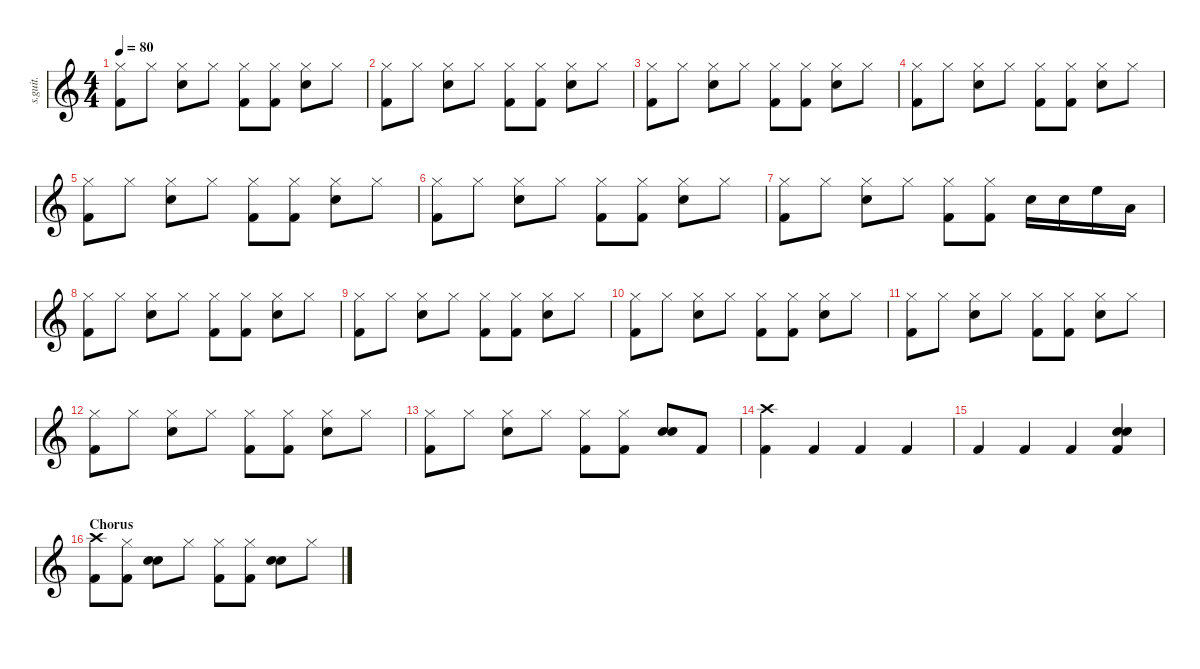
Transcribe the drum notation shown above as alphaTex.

\defaultSystemsLayout 4
\hideDynamics
\bracketExtendMode nobrackets
\track ("Tré Cool" "s.guit.") {instrument percussion}
\staff {score}
\articulation defaults
\ts (4 4)
\tempo 80
\clef g2
\ks c
("Hi-Hat (closed)" "Kick (hit) 2").8{lyrics (0 "") lyrics (1 "") lyrics (2 "") lyrics (3 "") lyrics (4 "") dy f} "Hi-Hat (closed)".8{lyrics (0 "") lyrics (1 "") lyrics (2 "") lyrics (3 "") lyrics (4 "")} ("Hi-Hat (closed)" "Snare (hit) 2").8{lyrics (0 "") lyrics (1 "") lyrics (2 "") lyrics (3 "") lyrics (4 "")} "Hi-Hat (closed)".8{lyrics (0 "") lyrics (1 "") lyrics (2 "") lyrics (3 "") lyrics (4 "")} ("Hi-Hat (closed)" "Kick (hit) 2").8{lyrics (0 "") lyrics (1 "") lyrics (2 "") lyrics (3 "") lyrics (4 "")} ("Hi-Hat (closed)" "Kick (hit) 2").8{lyrics (0 "") lyrics (1 "") lyrics (2 "") lyrics (3 "") lyrics (4 "")} ("Hi-Hat (closed)" "Snare (hit) 2").8{lyrics (0 "") lyrics (1 "") lyrics (2 "") lyrics (3 "") lyrics (4 "")} "Hi-Hat (closed)".8{lyrics (0 "") lyrics (1 "") lyrics (2 "") lyrics (3 "") lyrics (4 "")} |
("Hi-Hat (closed)" "Kick (hit) 2").8{lyrics (0 "") lyrics (1 "") lyrics (2 "") lyrics (3 "") lyrics (4 "")} "Hi-Hat (closed)".8{lyrics (0 "") lyrics (1 "") lyrics (2 "") lyrics (3 "") lyrics (4 "")} ("Hi-Hat (closed)" "Snare (hit) 2").8{lyrics (0 "") lyrics (1 "") lyrics (2 "") lyrics (3 "") lyrics (4 "")} "Hi-Hat (closed)".8{lyrics (0 "") lyrics (1 "") lyrics (2 "") lyrics (3 "") lyrics (4 "")} ("Hi-Hat (closed)" "Kick (hit) 2").8{lyrics (0 "") lyrics (1 "") lyrics (2 "") lyrics (3 "") lyrics (4 "")} ("Hi-Hat (closed)" "Kick (hit) 2").8{lyrics (0 "") lyrics (1 "") lyrics (2 "") lyrics (3 "") lyrics (4 "")} ("Hi-Hat (closed)" "Snare (hit) 2").8{lyrics (0 "") lyrics (1 "") lyrics (2 "") lyrics (3 "") lyrics (4 "")} "Hi-Hat (closed)".8{lyrics (0 "") lyrics (1 "") lyrics (2 "") lyrics (3 "") lyrics (4 "")} |
("Hi-Hat (closed)" "Kick (hit) 2").8{lyrics (0 "") lyrics (1 "") lyrics (2 "") lyrics (3 "") lyrics (4 "")} "Hi-Hat (closed)".8{lyrics (0 "") lyrics (1 "") lyrics (2 "") lyrics (3 "") lyrics (4 "")} ("Hi-Hat (closed)" "Snare (hit) 2").8{lyrics (0 "") lyrics (1 "") lyrics (2 "") lyrics (3 "") lyrics (4 "")} "Hi-Hat (closed)".8{lyrics (0 "") lyrics (1 "") lyrics (2 "") lyrics (3 "") lyrics (4 "")} ("Hi-Hat (closed)" "Kick (hit) 2").8{lyrics (0 "") lyrics (1 "") lyrics (2 "") lyrics (3 "") lyrics (4 "")} ("Hi-Hat (closed)" "Kick (hit) 2").8{lyrics (0 "") lyrics (1 "") lyrics (2 "") lyrics (3 "") lyrics (4 "")} ("Hi-Hat (closed)" "Snare (hit) 2").8{lyrics (0 "") lyrics (1 "") lyrics (2 "") lyrics (3 "") lyrics (4 "")} "Hi-Hat (closed)".8{lyrics (0 "") lyrics (1 "") lyrics (2 "") lyrics (3 "") lyrics (4 "")} |
("Hi-Hat (closed)" "Kick (hit) 2").8{lyrics (0 "") lyrics (1 "") lyrics (2 "") lyrics (3 "") lyrics (4 "")} "Hi-Hat (closed)".8{lyrics (0 "") lyrics (1 "") lyrics (2 "") lyrics (3 "") lyrics (4 "")} ("Hi-Hat (closed)" "Snare (hit) 2").8{lyrics (0 "") lyrics (1 "") lyrics (2 "") lyrics (3 "") lyrics (4 "")} "Hi-Hat (closed)".8{lyrics (0 "") lyrics (1 "") lyrics (2 "") lyrics (3 "") lyrics (4 "")} ("Hi-Hat (closed)" "Kick (hit) 2").8{lyrics (0 "") lyrics (1 "") lyrics (2 "") lyrics (3 "") lyrics (4 "")} ("Hi-Hat (closed)" "Kick (hit) 2").8{lyrics (0 "") lyrics (1 "") lyrics (2 "") lyrics (3 "") lyrics (4 "")} ("Hi-Hat (closed)" "Snare (hit) 2").8{lyrics (0 "") lyrics (1 "") lyrics (2 "") lyrics (3 "") lyrics (4 "")} "Hi-Hat (closed)".8{lyrics (0 "") lyrics (1 "") lyrics (2 "") lyrics (3 "") lyrics (4 "")} |
("Hi-Hat (closed)" "Kick (hit) 2").8{lyrics (0 "") lyrics (1 "") lyrics (2 "") lyrics (3 "") lyrics (4 "")} "Hi-Hat (closed)".8{lyrics (0 "") lyrics (1 "") lyrics (2 "") lyrics (3 "") lyrics (4 "")} ("Hi-Hat (closed)" "Snare (hit) 2").8{lyrics (0 "") lyrics (1 "") lyrics (2 "") lyrics (3 "") lyrics (4 "")} "Hi-Hat (closed)".8{lyrics (0 "") lyrics (1 "") lyrics (2 "") lyrics (3 "") lyrics (4 "")} ("Hi-Hat (closed)" "Kick (hit) 2").8{lyrics (0 "") lyrics (1 "") lyrics (2 "") lyrics (3 "") lyrics (4 "")} ("Hi-Hat (closed)" "Kick (hit) 2").8{lyrics (0 "") lyrics (1 "") lyrics (2 "") lyrics (3 "") lyrics (4 "")} ("Hi-Hat (closed)" "Snare (hit) 2").8{lyrics (0 "") lyrics (1 "") lyrics (2 "") lyrics (3 "") lyrics (4 "")} "Hi-Hat (closed)".8{lyrics (0 "") lyrics (1 "") lyrics (2 "") lyrics (3 "") lyrics (4 "")} |
("Hi-Hat (closed)" "Kick (hit) 2").8{lyrics (0 "") lyrics (1 "") lyrics (2 "") lyrics (3 "") lyrics (4 "")} "Hi-Hat (closed)".8{lyrics (0 "") lyrics (1 "") lyrics (2 "") lyrics (3 "") lyrics (4 "")} ("Hi-Hat (closed)" "Snare (hit) 2").8{lyrics (0 "") lyrics (1 "") lyrics (2 "") lyrics (3 "") lyrics (4 "")} "Hi-Hat (closed)".8{lyrics (0 "") lyrics (1 "") lyrics (2 "") lyrics (3 "") lyrics (4 "")} ("Hi-Hat (closed)" "Kick (hit) 2").8{lyrics (0 "") lyrics (1 "") lyrics (2 "") lyrics (3 "") lyrics (4 "")} ("Hi-Hat (closed)" "Kick (hit) 2").8{lyrics (0 "") lyrics (1 "") lyrics (2 "") lyrics (3 "") lyrics (4 "")} ("Hi-Hat (closed)" "Snare (hit) 2").8{lyrics (0 "") lyrics (1 "") lyrics (2 "") lyrics (3 "") lyrics (4 "")} "Hi-Hat (closed)".8{lyrics (0 "") lyrics (1 "") lyrics (2 "") lyrics (3 "") lyrics (4 "")} |
("Hi-Hat (closed)" "Kick (hit) 2").8{lyrics (0 "") lyrics (1 "") lyrics (2 "") lyrics (3 "") lyrics (4 "")} "Hi-Hat (closed)".8{lyrics (0 "") lyrics (1 "") lyrics (2 "") lyrics (3 "") lyrics (4 "")} ("Hi-Hat (closed)" "Snare (hit) 2").8{lyrics (0 "") lyrics (1 "") lyrics (2 "") lyrics (3 "") lyrics (4 "")} "Hi-Hat (closed)".8{lyrics (0 "") lyrics (1 "") lyrics (2 "") lyrics (3 "") lyrics (4 "")} ("Hi-Hat (closed)" "Kick (hit) 2").8{lyrics (0 "") lyrics (1 "") lyrics (2 "") lyrics (3 "") lyrics (4 "")} ("Hi-Hat (closed)" "Kick (hit) 2").8{lyrics (0 "") lyrics (1 "") lyrics (2 "") lyrics (3 "") lyrics (4 "")} "Snare (hit) 2".16{lyrics (0 "") lyrics (1 "") lyrics (2 "") lyrics (3 "") lyrics (4 "")} "Snare (hit) 2".16{lyrics (0 "") lyrics (1 "") lyrics (2 "") lyrics (3 "") lyrics (4 "")} "High Floor Tom (hit)".16{lyrics (0 "") lyrics (1 "") lyrics (2 "") lyrics (3 "") lyrics (4 "")} "Low Tom (hit)".16{lyrics (0 "") lyrics (1 "") lyrics (2 "") lyrics (3 "") lyrics (4 "")} |
("Hi-Hat (closed)" "Kick (hit) 2").8{lyrics (0 "") lyrics (1 "") lyrics (2 "") lyrics (3 "") lyrics (4 "")} "Hi-Hat (closed)".8{lyrics (0 "") lyrics (1 "") lyrics (2 "") lyrics (3 "") lyrics (4 "")} ("Hi-Hat (closed)" "Snare (hit) 2").8{lyrics (0 "") lyrics (1 "") lyrics (2 "") lyrics (3 "") lyrics (4 "")} "Hi-Hat (closed)".8{lyrics (0 "") lyrics (1 "") lyrics (2 "") lyrics (3 "") lyrics (4 "")} ("Hi-Hat (closed)" "Kick (hit) 2").8{lyrics (0 "") lyrics (1 "") lyrics (2 "") lyrics (3 "") lyrics (4 "")} ("Hi-Hat (closed)" "Kick (hit) 2").8{lyrics (0 "") lyrics (1 "") lyrics (2 "") lyrics (3 "") lyrics (4 "")} ("Hi-Hat (closed)" "Snare (hit) 2").8{lyrics (0 "") lyrics (1 "") lyrics (2 "") lyrics (3 "") lyrics (4 "")} "Hi-Hat (closed)".8{lyrics (0 "") lyrics (1 "") lyrics (2 "") lyrics (3 "") lyrics (4 "")} |
("Hi-Hat (closed)" "Kick (hit) 2").8{lyrics (0 "") lyrics (1 "") lyrics (2 "") lyrics (3 "") lyrics (4 "")} "Hi-Hat (closed)".8{lyrics (0 "") lyrics (1 "") lyrics (2 "") lyrics (3 "") lyrics (4 "")} ("Hi-Hat (closed)" "Snare (hit) 2").8{lyrics (0 "") lyrics (1 "") lyrics (2 "") lyrics (3 "") lyrics (4 "")} "Hi-Hat (closed)".8{lyrics (0 "") lyrics (1 "") lyrics (2 "") lyrics (3 "") lyrics (4 "")} ("Hi-Hat (closed)" "Kick (hit) 2").8{lyrics (0 "") lyrics (1 "") lyrics (2 "") lyrics (3 "") lyrics (4 "")} ("Hi-Hat (closed)" "Kick (hit) 2").8{lyrics (0 "") lyrics (1 "") lyrics (2 "") lyrics (3 "") lyrics (4 "")} ("Hi-Hat (closed)" "Snare (hit) 2").8{lyrics (0 "") lyrics (1 "") lyrics (2 "") lyrics (3 "") lyrics (4 "")} "Hi-Hat (closed)".8{lyrics (0 "") lyrics (1 "") lyrics (2 "") lyrics (3 "") lyrics (4 "")} |
("Hi-Hat (closed)" "Kick (hit) 2").8{lyrics (0 "") lyrics (1 "") lyrics (2 "") lyrics (3 "") lyrics (4 "")} "Hi-Hat (closed)".8{lyrics (0 "") lyrics (1 "") lyrics (2 "") lyrics (3 "") lyrics (4 "")} ("Hi-Hat (closed)" "Snare (hit) 2").8{lyrics (0 "") lyrics (1 "") lyrics (2 "") lyrics (3 "") lyrics (4 "")} "Hi-Hat (closed)".8{lyrics (0 "") lyrics (1 "") lyrics (2 "") lyrics (3 "") lyrics (4 "")} ("Hi-Hat (closed)" "Kick (hit) 2").8{lyrics (0 "") lyrics (1 "") lyrics (2 "") lyrics (3 "") lyrics (4 "")} ("Hi-Hat (closed)" "Kick (hit) 2").8{lyrics (0 "") lyrics (1 "") lyrics (2 "") lyrics (3 "") lyrics (4 "")} ("Hi-Hat (closed)" "Snare (hit) 2").8{lyrics (0 "") lyrics (1 "") lyrics (2 "") lyrics (3 "") lyrics (4 "")} "Hi-Hat (closed)".8{lyrics (0 "") lyrics (1 "") lyrics (2 "") lyrics (3 "") lyrics (4 "")} |
("Hi-Hat (closed)" "Kick (hit) 2").8{lyrics (0 "") lyrics (1 "") lyrics (2 "") lyrics (3 "") lyrics (4 "")} "Hi-Hat (closed)".8{lyrics (0 "") lyrics (1 "") lyrics (2 "") lyrics (3 "") lyrics (4 "")} ("Hi-Hat (closed)" "Snare (hit) 2").8{lyrics (0 "") lyrics (1 "") lyrics (2 "") lyrics (3 "") lyrics (4 "")} "Hi-Hat (closed)".8{lyrics (0 "") lyrics (1 "") lyrics (2 "") lyrics (3 "") lyrics (4 "")} ("Hi-Hat (closed)" "Kick (hit) 2").8{lyrics (0 "") lyrics (1 "") lyrics (2 "") lyrics (3 "") lyrics (4 "")} ("Hi-Hat (closed)" "Kick (hit) 2").8{lyrics (0 "") lyrics (1 "") lyrics (2 "") lyrics (3 "") lyrics (4 "")} ("Hi-Hat (closed)" "Snare (hit) 2").8{lyrics (0 "") lyrics (1 "") lyrics (2 "") lyrics (3 "") lyrics (4 "")} "Hi-Hat (closed)".8{lyrics (0 "") lyrics (1 "") lyrics (2 "") lyrics (3 "") lyrics (4 "")} |
("Hi-Hat (closed)" "Kick (hit) 2").8{lyrics (0 "") lyrics (1 "") lyrics (2 "") lyrics (3 "") lyrics (4 "")} "Hi-Hat (closed)".8{lyrics (0 "") lyrics (1 "") lyrics (2 "") lyrics (3 "") lyrics (4 "")} ("Hi-Hat (closed)" "Snare (hit) 2").8{lyrics (0 "") lyrics (1 "") lyrics (2 "") lyrics (3 "") lyrics (4 "")} "Hi-Hat (closed)".8{lyrics (0 "") lyrics (1 "") lyrics (2 "") lyrics (3 "") lyrics (4 "")} ("Hi-Hat (closed)" "Kick (hit) 2").8{lyrics (0 "") lyrics (1 "") lyrics (2 "") lyrics (3 "") lyrics (4 "")} ("Hi-Hat (closed)" "Kick (hit) 2").8{lyrics (0 "") lyrics (1 "") lyrics (2 "") lyrics (3 "") lyrics (4 "")} ("Hi-Hat (closed)" "Snare (hit) 2").8{lyrics (0 "") lyrics (1 "") lyrics (2 "") lyrics (3 "") lyrics (4 "")} "Hi-Hat (closed)".8{lyrics (0 "") lyrics (1 "") lyrics (2 "") lyrics (3 "") lyrics (4 "")} |
("Hi-Hat (closed)" "Kick (hit) 2").8{lyrics (0 "") lyrics (1 "") lyrics (2 "") lyrics (3 "") lyrics (4 "")} "Hi-Hat (closed)".8{lyrics (0 "") lyrics (1 "") lyrics (2 "") lyrics (3 "") lyrics (4 "")} ("Hi-Hat (closed)" "Snare (hit) 2").8{lyrics (0 "") lyrics (1 "") lyrics (2 "") lyrics (3 "") lyrics (4 "")} "Hi-Hat (closed)".8{lyrics (0 "") lyrics (1 "") lyrics (2 "") lyrics (3 "") lyrics (4 "")} ("Hi-Hat (closed)" "Kick (hit) 2").8{lyrics (0 "") lyrics (1 "") lyrics (2 "") lyrics (3 "") lyrics (4 "")} ("Hi-Hat (closed)" "Kick (hit) 2").8{lyrics (0 "") lyrics (1 "") lyrics (2 "") lyrics (3 "") lyrics (4 "")} ("Snare (hit) 2" "Snare (hit) 2").8{lyrics (0 "") lyrics (1 "") lyrics (2 "") lyrics (3 "") lyrics (4 "")} "Kick (hit) 2".8{lyrics (0 "") lyrics (1 "") lyrics (2 "") lyrics (3 "") lyrics (4 "")} |
("Crash high (hit)" "Kick (hit) 2").4{lyrics (0 "") lyrics (1 "") lyrics (2 "") lyrics (3 "") lyrics (4 "")} "Kick (hit) 2".4{lyrics (0 "") lyrics (1 "") lyrics (2 "") lyrics (3 "") lyrics (4 "")} "Kick (hit) 2".4{lyrics (0 "") lyrics (1 "") lyrics (2 "") lyrics (3 "") lyrics (4 "")} "Kick (hit) 2".4{lyrics (0 "") lyrics (1 "") lyrics (2 "") lyrics (3 "") lyrics (4 "")} |
"Kick (hit) 2".4{lyrics (0 "") lyrics (1 "") lyrics (2 "") lyrics (3 "") lyrics (4 "")} "Kick (hit) 2".4{lyrics (0 "") lyrics (1 "") lyrics (2 "") lyrics (3 "") lyrics (4 "")} "Kick (hit) 2".4{lyrics (0 "") lyrics (1 "") lyrics (2 "") lyrics (3 "") lyrics (4 "")} ("Snare (hit) 2" "Snare (hit) 2" "Kick (hit) 2").4{lyrics (0 "") lyrics (1 "") lyrics (2 "") lyrics (3 "") lyrics (4 "")} |
\section ("" "Chorus")
("Crash high (hit)" "Kick (hit) 2").8{lyrics (0 "") lyrics (1 "") lyrics (2 "") lyrics (3 "") lyrics (4 "")} ("Hi-Hat (closed)" "Kick (hit) 2").8{lyrics (0 "") lyrics (1 "") lyrics (2 "") lyrics (3 "") lyrics (4 "")} ("Snare (hit) 2" "Snare (hit) 2").8{lyrics (0 "") lyrics (1 "") lyrics (2 "") lyrics (3 "") lyrics (4 "")} "Hi-Hat (closed)".8{lyrics (0 "") lyrics (1 "") lyrics (2 "") lyrics (3 "") lyrics (4 "")} ("Hi-Hat (closed)" "Kick (hit) 2").8{lyrics (0 "") lyrics (1 "") lyrics (2 "") lyrics (3 "") lyrics (4 "")} ("Hi-Hat (closed)" "Kick (hit) 2").8{lyrics (0 "") lyrics (1 "") lyrics (2 "") lyrics (3 "") lyrics (4 "")} ("Snare (hit) 2" "Snare (hit) 2").8{lyrics (0 "") lyrics (1 "") lyrics (2 "") lyrics (3 "") lyrics (4 "")} "Hi-Hat (closed)".8{lyrics (0 "") lyrics (1 "") lyrics (2 "") lyrics (3 "") lyrics (4 "")}
